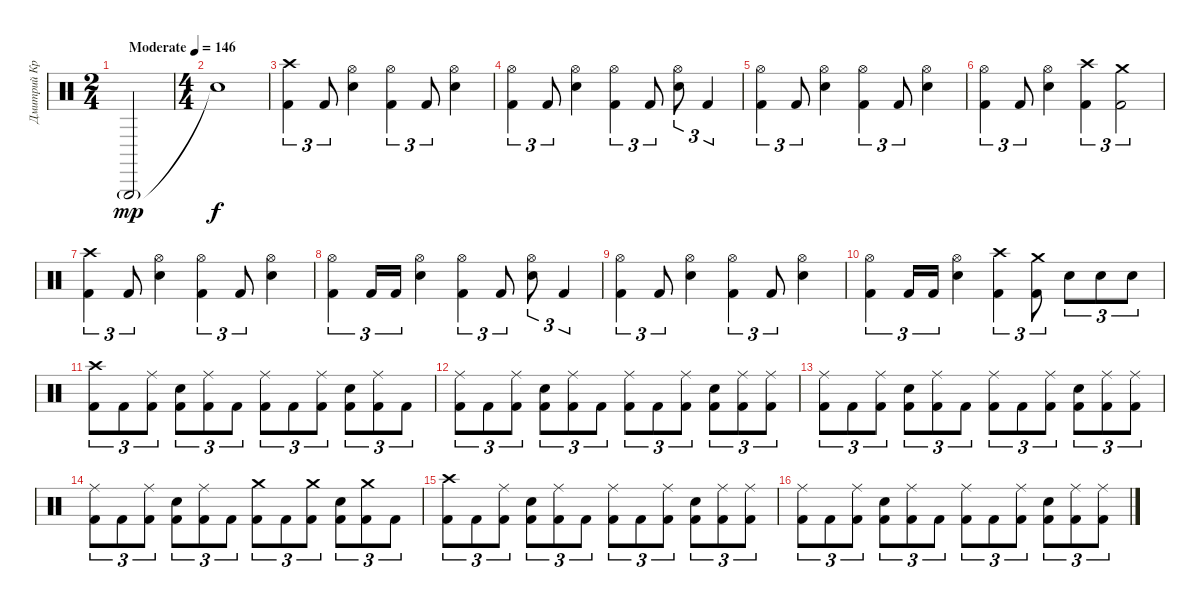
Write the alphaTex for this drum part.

\track ("Дмитрий Кривенков" "Дмитрий Кр") {instrument percussion}
\staff {score}
\articulation defaults
\ts (2 4)
\tempo (146 "Moderate")
\clef neutral
\ks c "Triangle (hit)"{g}.2{dy mp}
|
\ts (4 4)
"Snare (hit)"{t}.1{dy f} |
("Crash high (hit)" "Kick (hit) 2").4{tu (3 2)} "Kick (hit) 2".8{tu (3 2)} ("Hi-Hat (open)" "Electric Snare (hit)").4 ("Hi-Hat (open)" "Kick (hit) 2").4{tu (3 2)} "Kick (hit) 2".8{tu (3 2)} ("Hi-Hat (open)" "Electric Snare (hit)").4 |
("Hi-Hat (open)" "Kick (hit) 2").4{tu (3 2)} "Kick (hit) 2".8{tu (3 2)} ("Hi-Hat (open)" "Electric Snare (hit)").4 ("Hi-Hat (open)" "Kick (hit) 2").4{tu (3 2)} "Kick (hit) 2".8{tu (3 2)} ("Hi-Hat (open)" "Electric Snare (hit)").8{tu (3 2)} "Kick (hit) 2".4{tu (3 2)} |
("Hi-Hat (open)" "Kick (hit) 2").4{tu (3 2)} "Kick (hit) 2".8{tu (3 2)} ("Hi-Hat (open)" "Electric Snare (hit)").4 ("Hi-Hat (open)" "Kick (hit) 2").4{tu (3 2)} "Kick (hit) 2".8{tu (3 2)} ("Hi-Hat (open)" "Electric Snare (hit)").4 |
("Hi-Hat (open)" "Kick (hit) 2").4{tu (3 2)} "Kick (hit) 2".8{tu (3 2)} ("Hi-Hat (open)" "Electric Snare (hit)").4 ("Crash high (hit)" "Kick (hit) 2").4{tu (3 2)} ("Crash medium (hit)" "Kick (hit) 2").2{tu (3 2)} |
("Crash high (hit)" "Kick (hit) 2").4{tu (3 2)} "Kick (hit) 2".8{tu (3 2)} ("Hi-Hat (open)" "Electric Snare (hit)").4 ("Hi-Hat (open)" "Kick (hit) 2").4{tu (3 2)} "Kick (hit) 2".8{tu (3 2)} ("Hi-Hat (open)" "Electric Snare (hit)").4 |
("Hi-Hat (open)" "Kick (hit) 2").4{tu (3 2)} "Kick (hit) 2".16{tu (3 2)} "Kick (hit) 2".16{tu (3 2)} ("Hi-Hat (open)" "Electric Snare (hit)").4 ("Hi-Hat (open)" "Kick (hit) 2").4{tu (3 2)} "Kick (hit) 2".8{tu (3 2)} ("Hi-Hat (open)" "Electric Snare (hit)").8{tu (3 2)} "Kick (hit) 2".4{tu (3 2)} |
("Hi-Hat (open)" "Kick (hit) 2").4{tu (3 2)} "Kick (hit) 2".8{tu (3 2)} ("Hi-Hat (open)" "Electric Snare (hit)").4 ("Hi-Hat (open)" "Kick (hit) 2").4{tu (3 2)} "Kick (hit) 2".8{tu (3 2)} ("Hi-Hat (open)" "Electric Snare (hit)").4 |
("Hi-Hat (open)" "Kick (hit) 2").4{tu (3 2)} "Kick (hit) 2".16{tu (3 2)} "Kick (hit) 2".16{tu (3 2)} ("Hi-Hat (open)" "Electric Snare (hit)").4 ("Crash high (hit)" "Kick (hit) 2").4{tu (3 2)} ("Crash medium (hit)" "Kick (hit) 2").8{tu (3 2)} "Electric Snare (hit)".8{tu (3 2)} "Electric Snare (hit)".8{tu (3 2)} "Electric Snare (hit)".8{tu (3 2)} |
("Crash high (hit)" "Kick (hit) 2").8{tu (3 2)} "Kick (hit) 2".8{tu (3 2)} ("Ride (middle)" "Kick (hit) 2").8{tu (3 2)} ("Electric Snare (hit)" "Kick (hit) 2").8{tu (3 2)} ("Ride (middle)" "Kick (hit) 2").8{tu (3 2)} "Kick (hit) 2".8{tu (3 2)} ("Ride (middle)" "Kick (hit) 2").8{tu (3 2)} "Kick (hit) 2".8{tu (3 2)} ("Ride (middle)" "Kick (hit) 2").8{tu (3 2)} ("Electric Snare (hit)" "Kick (hit) 2").8{tu (3 2)} ("Ride (middle)" "Kick (hit) 2").8{tu (3 2)} "Kick (hit) 2".8{tu (3 2)} |
("Ride (middle)" "Kick (hit) 2").8{tu (3 2)} "Kick (hit) 2".8{tu (3 2)} ("Ride (middle)" "Kick (hit) 2").8{tu (3 2)} ("Electric Snare (hit)" "Kick (hit) 2").8{tu (3 2)} ("Ride (middle)" "Kick (hit) 2").8{tu (3 2)} "Kick (hit) 2".8{tu (3 2)} ("Ride (middle)" "Kick (hit) 2").8{tu (3 2)} "Kick (hit) 2".8{tu (3 2)} ("Ride (middle)" "Kick (hit) 2").8{tu (3 2)} ("Electric Snare (hit)" "Kick (hit) 2").8{tu (3 2)} ("Ride (middle)" "Kick (hit) 2").8{tu (3 2)} ("Ride (middle)" "Kick (hit) 2").8{tu (3 2)} |
("Ride (middle)" "Kick (hit) 2").8{tu (3 2)} "Kick (hit) 2".8{tu (3 2)} ("Ride (middle)" "Kick (hit) 2").8{tu (3 2)} ("Electric Snare (hit)" "Kick (hit) 2").8{tu (3 2)} ("Ride (middle)" "Kick (hit) 2").8{tu (3 2)} "Kick (hit) 2".8{tu (3 2)} ("Ride (middle)" "Kick (hit) 2").8{tu (3 2)} "Kick (hit) 2".8{tu (3 2)} ("Ride (middle)" "Kick (hit) 2").8{tu (3 2)} ("Electric Snare (hit)" "Kick (hit) 2").8{tu (3 2)} ("Ride (middle)" "Kick (hit) 2").8{tu (3 2)} ("Ride (middle)" "Kick (hit) 2").8{tu (3 2)} |
("Ride (middle)" "Kick (hit) 2").8{tu (3 2)} "Kick (hit) 2".8{tu (3 2)} ("Ride (middle)" "Kick (hit) 2").8{tu (3 2)} ("Electric Snare (hit)" "Kick (hit) 2").8{tu (3 2)} ("Ride (middle)" "Kick (hit) 2").8{tu (3 2)} "Kick (hit) 2".8{tu (3 2)} ("Crash medium (hit)" "Kick (hit) 2").8{tu (3 2)} "Kick (hit) 2".8{tu (3 2)} ("Crash medium (hit)" "Kick (hit) 2").8{tu (3 2)} ("Electric Snare (hit)" "Kick (hit) 2").8{tu (3 2)} ("Crash medium (hit)" "Kick (hit) 2").8{tu (3 2)} "Kick (hit) 2".8{tu (3 2)} |
("Crash high (hit)" "Kick (hit) 2").8{tu (3 2)} "Kick (hit) 2".8{tu (3 2)} ("Ride (middle)" "Kick (hit) 2").8{tu (3 2)} ("Electric Snare (hit)" "Kick (hit) 2").8{tu (3 2)} ("Ride (middle)" "Kick (hit) 2").8{tu (3 2)} "Kick (hit) 2".8{tu (3 2)} ("Ride (middle)" "Kick (hit) 2").8{tu (3 2)} "Kick (hit) 2".8{tu (3 2)} ("Ride (middle)" "Kick (hit) 2").8{tu (3 2)} ("Electric Snare (hit)" "Kick (hit) 2").8{tu (3 2)} ("Ride (middle)" "Kick (hit) 2").8{tu (3 2)} ("Ride (middle)" "Kick (hit) 2").8{tu (3 2)} |
("Ride (middle)" "Kick (hit) 2").8{tu (3 2)} "Kick (hit) 2".8{tu (3 2)} ("Ride (middle)" "Kick (hit) 2").8{tu (3 2)} ("Electric Snare (hit)" "Kick (hit) 2").8{tu (3 2)} ("Ride (middle)" "Kick (hit) 2").8{tu (3 2)} "Kick (hit) 2".8{tu (3 2)} ("Ride (middle)" "Kick (hit) 2").8{tu (3 2)} "Kick (hit) 2".8{tu (3 2)} ("Ride (middle)" "Kick (hit) 2").8{tu (3 2)} ("Electric Snare (hit)" "Kick (hit) 2").8{tu (3 2)} ("Ride (middle)" "Kick (hit) 2").8{tu (3 2)} ("Ride (middle)" "Kick (hit) 2").8{tu (3 2)}
